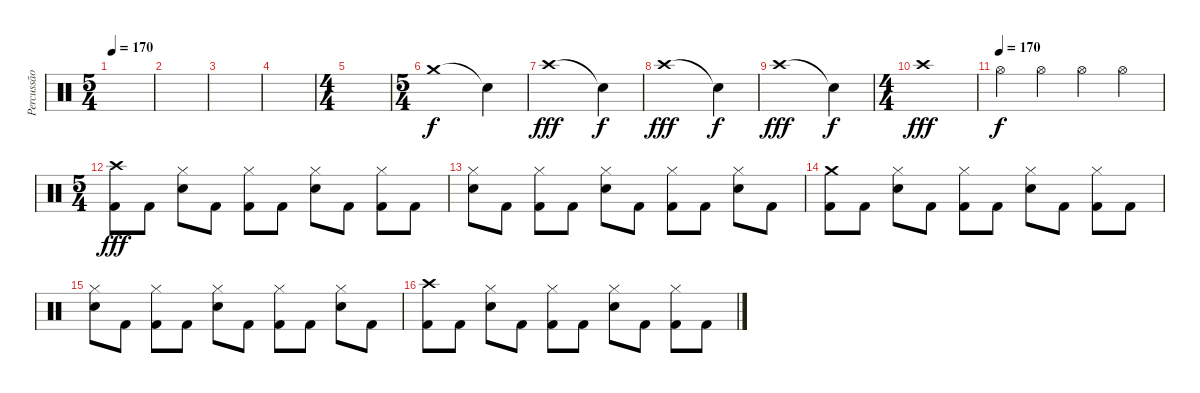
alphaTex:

\track ("Percussão" "Percussão") {instrument percussion}
\staff {score}
\articulation defaults
\ts (5 4)
\tempo 170
\tempo 140
\tempo 170
\clef neutral
\ks c
|
|
|
|
\ts (4 4)
|
\ts (5 4)
"Crash medium (hit)".1 "Snare (hit)"{t}.4{dy f} |
"Crash high (hit)".1{dy fff} "Snare (hit)"{t}.4{dy f} |
"Crash high (hit)".1{dy fff} "Snare (hit)"{t}.4{dy f} |
"Crash high (hit)".1{dy fff} "Snare (hit)"{t}.4{dy f} |
\ts (4 4)
"Crash high (hit)".1{dy fff} |
\tempo (170)
"Hi-Hat (open)".4{dy f} "Hi-Hat (open)".4 "Hi-Hat (open)".4 "Hi-Hat (open)".4 |
\ts (5 4)
("Kick (hit) 2" "Crash high (hit)").8{dy fff} "Kick (hit) 2".8 ("Snare (hit) 2" "Hi-Hat (closed)").8 "Kick (hit) 2".8 ("Kick (hit) 2" "Hi-Hat (closed)").8 "Kick (hit) 2".8 ("Snare (hit) 2" "Hi-Hat (closed)").8 "Kick (hit) 2".8 ("Kick (hit) 2" "Hi-Hat (closed)").8 "Kick (hit) 2".8 |
("Snare (hit) 2" "Hi-Hat (closed)").8 "Kick (hit) 2".8 ("Kick (hit) 2" "Hi-Hat (closed)").8 "Kick (hit) 2".8 ("Snare (hit) 2" "Hi-Hat (closed)").8 "Kick (hit) 2".8 ("Kick (hit) 2" "Hi-Hat (closed)").8 "Kick (hit) 2".8 ("Snare (hit) 2" "Hi-Hat (closed)").8 "Kick (hit) 2".8 |
("Kick (hit) 2" "Crash medium (hit)").8 "Kick (hit) 2".8 ("Snare (hit) 2" "Hi-Hat (closed)").8 "Kick (hit) 2".8 ("Kick (hit) 2" "Hi-Hat (closed)").8 "Kick (hit) 2".8 ("Snare (hit) 2" "Hi-Hat (closed)").8 "Kick (hit) 2".8 ("Kick (hit) 2" "Hi-Hat (closed)").8 "Kick (hit) 2".8 |
("Snare (hit) 2" "Hi-Hat (closed)").8 "Kick (hit) 2".8 ("Kick (hit) 2" "Hi-Hat (closed)").8 "Kick (hit) 2".8 ("Snare (hit) 2" "Hi-Hat (closed)").8 "Kick (hit) 2".8 ("Kick (hit) 2" "Hi-Hat (closed)").8 "Kick (hit) 2".8 ("Snare (hit) 2" "Hi-Hat (closed)").8 "Kick (hit) 2".8 |
("Kick (hit) 2" "Crash high (hit)").8 "Kick (hit) 2".8 ("Snare (hit) 2" "Hi-Hat (closed)").8 "Kick (hit) 2".8 ("Kick (hit) 2" "Hi-Hat (closed)").8 "Kick (hit) 2".8 ("Snare (hit) 2" "Hi-Hat (closed)").8 "Kick (hit) 2".8 ("Kick (hit) 2" "Hi-Hat (closed)").8 "Kick (hit) 2".8
